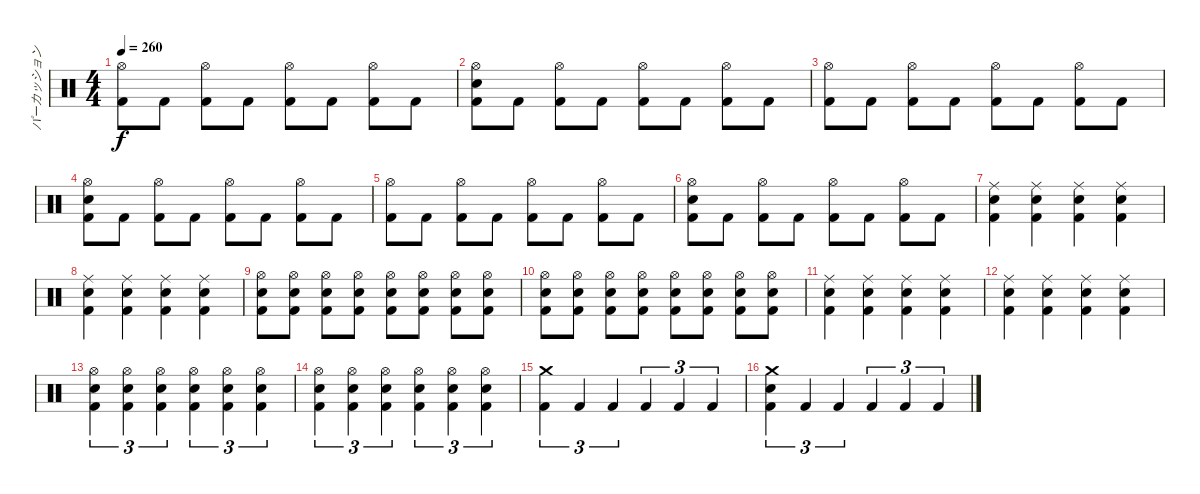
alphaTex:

\track ("パーカッション" "パーカッション") {instrument percussion}
\staff {score}
\articulation defaults
\ts (4 4)
\tempo 260
\clef neutral
\ks c
("Hi-Hat (open)" "Kick (hit) 2").8{dy f} "Kick (hit) 2".8 ("Hi-Hat (open)" "Kick (hit) 2").8 "Kick (hit) 2".8 ("Hi-Hat (open)" "Kick (hit) 2").8 "Kick (hit) 2".8 ("Hi-Hat (open)" "Kick (hit) 2").8 "Kick (hit) 2".8 |
("Snare (hit) 2" "Hi-Hat (open)" "Kick (hit) 2").8 "Kick (hit) 2".8 ("Hi-Hat (open)" "Kick (hit) 2").8 "Kick (hit) 2".8 ("Hi-Hat (open)" "Kick (hit) 2").8 "Kick (hit) 2".8 ("Hi-Hat (open)" "Kick (hit) 2").8 "Kick (hit) 2".8 |
("Hi-Hat (open)" "Kick (hit) 2").8 "Kick (hit) 2".8 ("Hi-Hat (open)" "Kick (hit) 2").8 "Kick (hit) 2".8 ("Hi-Hat (open)" "Kick (hit) 2").8 "Kick (hit) 2".8 ("Hi-Hat (open)" "Kick (hit) 2").8 "Kick (hit) 2".8 |
("Snare (hit) 2" "Hi-Hat (open)" "Kick (hit) 2").8 "Kick (hit) 2".8 ("Hi-Hat (open)" "Kick (hit) 2").8 "Kick (hit) 2".8 ("Hi-Hat (open)" "Kick (hit) 2").8 "Kick (hit) 2".8 ("Hi-Hat (open)" "Kick (hit) 2").8 "Kick (hit) 2".8 |
("Hi-Hat (open)" "Kick (hit) 2").8 "Kick (hit) 2".8 ("Hi-Hat (open)" "Kick (hit) 2").8 "Kick (hit) 2".8 ("Hi-Hat (open)" "Kick (hit) 2").8 "Kick (hit) 2".8 ("Hi-Hat (open)" "Kick (hit) 2").8 "Kick (hit) 2".8 |
("Snare (hit) 2" "Hi-Hat (open)" "Kick (hit) 2").8 "Kick (hit) 2".8 ("Hi-Hat (open)" "Kick (hit) 2").8 "Kick (hit) 2".8 ("Hi-Hat (open)" "Kick (hit) 2").8 "Kick (hit) 2".8 ("Hi-Hat (open)" "Kick (hit) 2").8 "Kick (hit) 2".8 |
("Ride (middle)" "Snare (hit) 2" "Kick (hit) 2").4 ("Ride (middle)" "Snare (hit) 2" "Kick (hit) 2").4 ("Ride (middle)" "Snare (hit) 2" "Kick (hit) 2").4 ("Ride (middle)" "Snare (hit) 2" "Kick (hit) 2").4 |
("Ride (middle)" "Snare (hit) 2" "Kick (hit) 2").4 ("Ride (middle)" "Snare (hit) 2" "Kick (hit) 2").4 ("Ride (middle)" "Snare (hit) 2" "Kick (hit) 2").4 ("Ride (middle)" "Snare (hit) 2" "Kick (hit) 2").4 |
("Hi-Hat (open)" "Snare (hit) 2" "Kick (hit) 2").8 ("Hi-Hat (open)" "Snare (hit) 2" "Kick (hit) 2").8 ("Hi-Hat (open)" "Snare (hit) 2" "Kick (hit) 2").8 ("Hi-Hat (open)" "Snare (hit) 2" "Kick (hit) 2").8 ("Hi-Hat (open)" "Snare (hit) 2" "Kick (hit) 2").8 ("Hi-Hat (open)" "Snare (hit) 2" "Kick (hit) 2").8 ("Hi-Hat (open)" "Snare (hit) 2" "Kick (hit) 2").8 ("Hi-Hat (open)" "Snare (hit) 2" "Kick (hit) 2").8 |
("Hi-Hat (open)" "Snare (hit) 2" "Kick (hit) 2").8 ("Hi-Hat (open)" "Snare (hit) 2" "Kick (hit) 2").8 ("Hi-Hat (open)" "Snare (hit) 2" "Kick (hit) 2").8 ("Hi-Hat (open)" "Snare (hit) 2" "Kick (hit) 2").8 ("Hi-Hat (open)" "Snare (hit) 2" "Kick (hit) 2").8 ("Hi-Hat (open)" "Snare (hit) 2" "Kick (hit) 2").8 ("Hi-Hat (open)" "Snare (hit) 2" "Kick (hit) 2").8 ("Hi-Hat (open)" "Snare (hit) 2" "Kick (hit) 2").8 |
("Ride (middle)" "Snare (hit) 2" "Kick (hit) 2").4 ("Ride (middle)" "Snare (hit) 2" "Kick (hit) 2").4 ("Ride (middle)" "Snare (hit) 2" "Kick (hit) 2").4 ("Ride (middle)" "Snare (hit) 2" "Kick (hit) 2").4 |
("Ride (middle)" "Snare (hit) 2" "Kick (hit) 2").4 ("Ride (middle)" "Snare (hit) 2" "Kick (hit) 2").4 ("Ride (middle)" "Snare (hit) 2" "Kick (hit) 2").4 ("Ride (middle)" "Snare (hit) 2" "Kick (hit) 2").4 |
("Hi-Hat (open)" "Snare (hit) 2" "Kick (hit) 2").4{tu (3 2)} ("Hi-Hat (open)" "Snare (hit) 2" "Kick (hit) 2").4{tu (3 2)} ("Hi-Hat (open)" "Snare (hit) 2" "Kick (hit) 2").4{tu (3 2)} ("Hi-Hat (open)" "Snare (hit) 2" "Kick (hit) 2").4{tu (3 2)} ("Hi-Hat (open)" "Snare (hit) 2" "Kick (hit) 2").4{tu (3 2)} ("Hi-Hat (open)" "Snare (hit) 2" "Kick (hit) 2").4{tu (3 2)} |
("Hi-Hat (open)" "Snare (hit) 2" "Kick (hit) 2").4{tu (3 2)} ("Hi-Hat (open)" "Snare (hit) 2" "Kick (hit) 2").4{tu (3 2)} ("Hi-Hat (open)" "Snare (hit) 2" "Kick (hit) 2").4{tu (3 2)} ("Hi-Hat (open)" "Snare (hit) 2" "Kick (hit) 2").4{tu (3 2)} ("Hi-Hat (open)" "Snare (hit) 2" "Kick (hit) 2").4{tu (3 2)} ("Hi-Hat (open)" "Snare (hit) 2" "Kick (hit) 2").4{tu (3 2)} |
("Crash medium (hit)" "Kick (hit) 2").4{tu (3 2)} "Kick (hit) 2".4{tu (3 2)} "Kick (hit) 2".4{tu (3 2)} "Kick (hit) 2".4{tu (3 2)} "Kick (hit) 2".4{tu (3 2)} "Kick (hit) 2".4{tu (3 2)} |
("Crash medium (hit)" "Snare (hit) 2" "Kick (hit) 2").4{tu (3 2)} "Kick (hit) 2".4{tu (3 2)} "Kick (hit) 2".4{tu (3 2)} "Kick (hit) 2".4{tu (3 2)} "Kick (hit) 2".4{tu (3 2)} "Kick (hit) 2".4{tu (3 2)}
